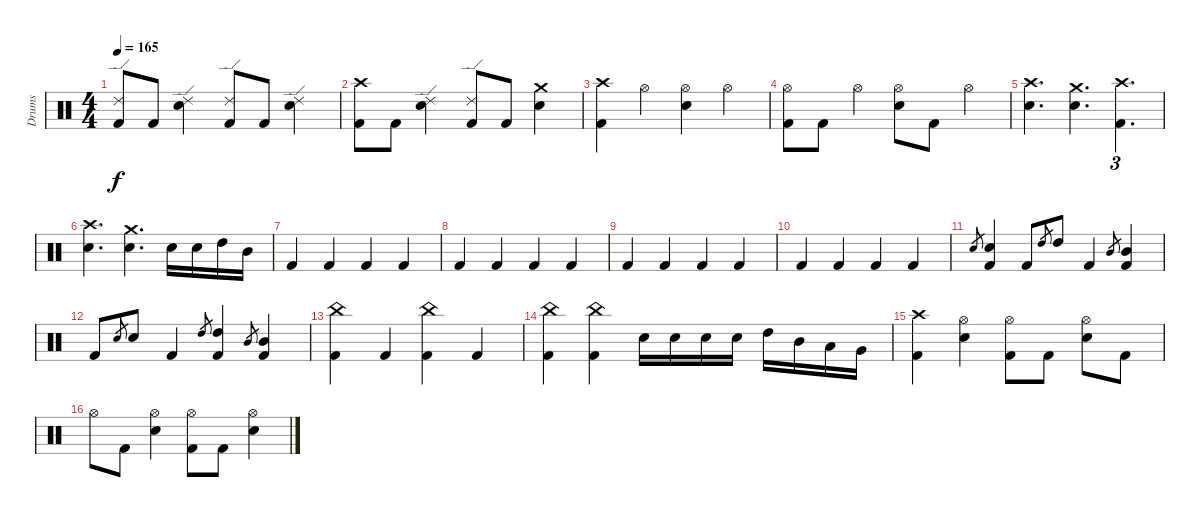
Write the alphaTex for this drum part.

\track ("Drums" "Drums") {instrument percussion}
\staff {score}
\articulation defaults
\ts (4 4)
\tempo 165
\clef neutral
\ks c
("Ride (edge) 2" "Kick (hit) 2").8{dy f} "Kick (hit) 2".8 ("Ride (edge) 2" "Electric Snare (hit)").4 ("Ride (edge) 2" "Kick (hit) 2").8 "Kick (hit) 2".8 ("Ride (edge) 2" "Electric Snare (hit)").4 |
("Crash high (hit)" "Kick (hit) 2").8 "Kick (hit) 2".8 ("Ride (edge) 2" "Electric Snare (hit)").4 ("Ride (edge) 2" "Kick (hit) 2").8 "Kick (hit) 2".8 ("Crash medium (hit)" "Electric Snare (hit)").4 |
("Crash high (hit)" "Kick (hit) 2").4 "Hi-Hat (open)".4 ("Hi-Hat (open)" "Electric Snare (hit)").4 "Hi-Hat (open)".4 |
("Hi-Hat (open)" "Kick (hit) 2").8 "Kick (hit) 2".8 "Hi-Hat (open)".4 ("Hi-Hat (open)" "Electric Snare (hit)").8 "Kick (hit) 2".8 "Hi-Hat (open)".4 |
("Crash high (hit)" "Electric Snare (hit)").4{d} ("Crash medium (hit)" "Electric Snare (hit)").4{d} ("Crash high (hit)" "Kick (hit) 2").4{d tu (3 2)} |
("Crash high (hit)" "Electric Snare (hit)").4{d} ("Crash medium (hit)" "Electric Snare (hit)").4{d} "Electric Snare (hit)".16 "Electric Snare (hit)".16 "High Tom (hit)".16 "Mid Tom (hit)".16 |
"Kick (hit) 2".4 "Kick (hit) 2".4 "Kick (hit) 2".4 "Kick (hit) 2".4 |
"Kick (hit) 2".4 "Kick (hit) 2".4 "Kick (hit) 2".4 "Kick (hit) 2".4 |
"Kick (hit) 2".4 "Kick (hit) 2".4 "Kick (hit) 2".4 "Kick (hit) 2".4 |
"Kick (hit) 2".4 "Kick (hit) 2".4 "Kick (hit) 2".4 "Kick (hit) 2".4 |
"Electric Snare (hit)".8{gr} ("Electric Snare (hit)" "Kick (hit) 2").4 "Kick (hit) 2".8 "High Tom (hit)".8{gr} "High Tom (hit)".8 "Kick (hit) 2".4 "Mid Tom (hit)".8{gr} ("Mid Tom (hit)" "Kick (hit) 2").4 |
"Kick (hit) 2".8 "Electric Snare (hit)".8{gr} "Electric Snare (hit)".8 "Kick (hit) 2".4 "High Tom (hit)".8{gr} ("High Tom (hit)" "Kick (hit) 2").4 "Mid Tom (hit)".8{gr} ("Mid Tom (hit)" "Kick (hit) 2").4 |
("China (hit)" "Kick (hit) 2").4 "Kick (hit) 2".4 ("China (hit)" "Kick (hit) 2").4 "Kick (hit) 2".4 |
("China (hit)" "Kick (hit) 2").4 ("China (hit)" "Kick (hit) 2").4 "Electric Snare (hit)".16 "Electric Snare (hit)".16 "Electric Snare (hit)".16 "Electric Snare (hit)".16 "High Tom (hit)".16 "Mid Tom (hit)".16 "Low Tom (hit)".16 "Very Low Tom (hit)".16 |
("Crash high (hit)" "Kick (hit) 2").4 ("Hi-Hat (open)" "Electric Snare (hit)").4 ("Hi-Hat (open)" "Kick (hit) 2").8 "Kick (hit) 2".8 ("Hi-Hat (open)" "Electric Snare (hit)").8 "Kick (hit) 2".8 |
"Hi-Hat (open)".8 "Kick (hit) 2".8 ("Hi-Hat (open)" "Electric Snare (hit)").4 ("Hi-Hat (open)" "Kick (hit) 2").8 "Kick (hit) 2".8 ("Hi-Hat (open)" "Electric Snare (hit)").4
